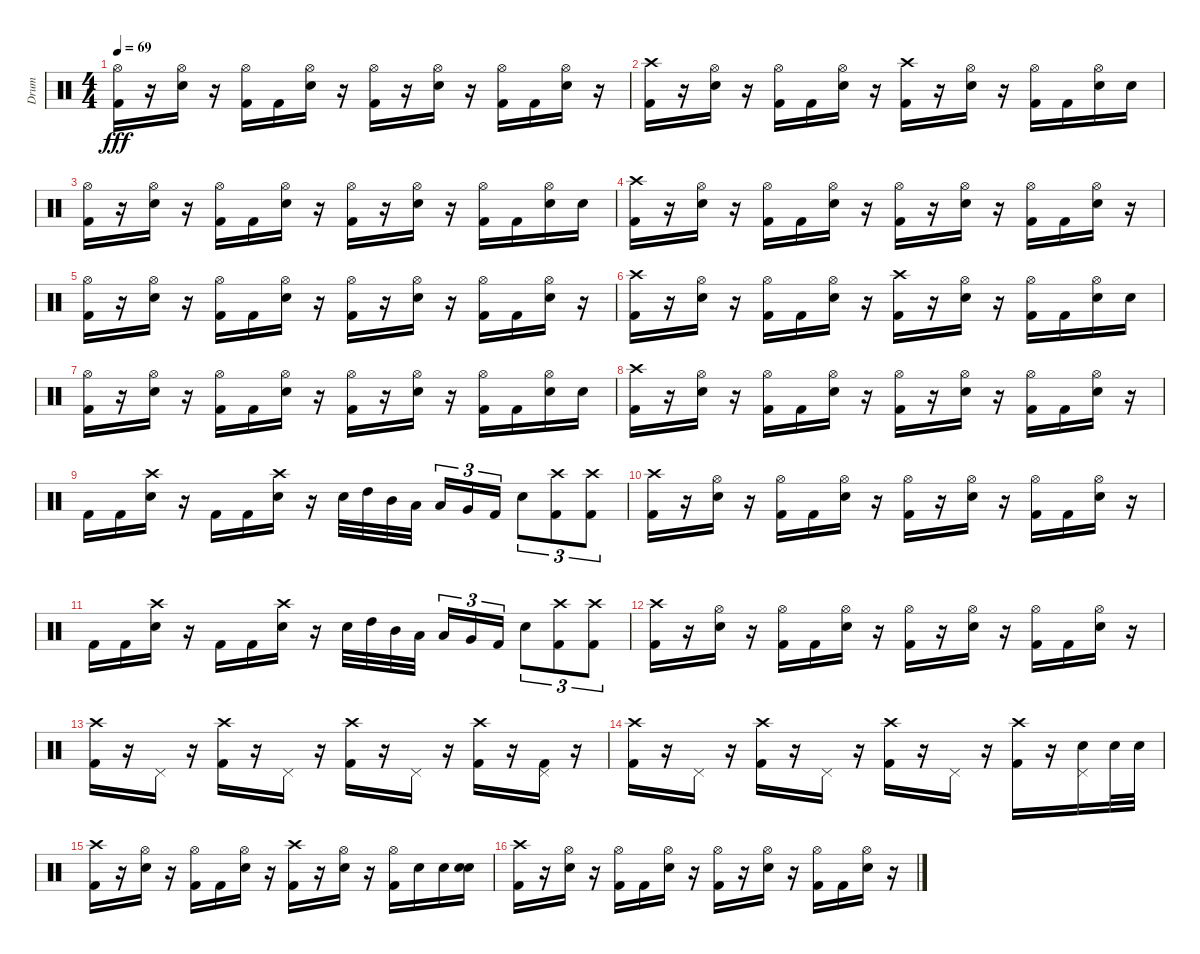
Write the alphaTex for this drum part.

\track ("Drum" "Drum") {instrument percussion}
\staff {score}
\articulation defaults
\ts (4 4)
\tempo 69
\clef neutral
\ks c
("Hi-Hat (open)" "Kick (hit) 2").16{dy fff} r.16 ("Electric Snare (hit)" "Hi-Hat (open)").16 r.16 ("Hi-Hat (open)" "Kick (hit) 2").16 "Kick (hit) 2".16 ("Electric Snare (hit)" "Hi-Hat (open)").16 r.16 ("Hi-Hat (open)" "Kick (hit) 2").16 r.16 ("Electric Snare (hit)" "Hi-Hat (open)").16 r.16 ("Hi-Hat (open)" "Kick (hit) 2").16 "Kick (hit) 2".16 ("Hi-Hat (open)" "Electric Snare (hit)").16 r.16 |
("Crash high (hit)" "Kick (hit) 2").16 r.16 ("Electric Snare (hit)" "Hi-Hat (open)").16 r.16 ("Kick (hit) 2" "Hi-Hat (open)").16 "Kick (hit) 2".16 ("Hi-Hat (open)" "Electric Snare (hit)").16 r.16 ("Kick (hit) 2" "Crash high (hit)").16 r.16 ("Electric Snare (hit)" "Hi-Hat (open)").16 r.16 ("Kick (hit) 2" "Hi-Hat (open)").16 "Kick (hit) 2".16 ("Hi-Hat (open)" "Electric Snare (hit)").16 "Electric Snare (hit)".16 |
("Hi-Hat (open)" "Kick (hit) 2").16 r.16 ("Electric Snare (hit)" "Hi-Hat (open)").16 r.16 ("Kick (hit) 2" "Hi-Hat (open)").16 "Kick (hit) 2".16 ("Electric Snare (hit)" "Hi-Hat (open)").16 r.16 ("Hi-Hat (open)" "Kick (hit) 2").16 r.16 ("Electric Snare (hit)" "Hi-Hat (open)").16 r.16 ("Kick (hit) 2" "Hi-Hat (open)").16 "Kick (hit) 2".16 ("Electric Snare (hit)" "Hi-Hat (open)").16 "Electric Snare (hit)".16 |
("Crash high (hit)" "Kick (hit) 2").16 r.16 ("Hi-Hat (open)" "Electric Snare (hit)").16 r.16 ("Kick (hit) 2" "Hi-Hat (open)").16 "Kick (hit) 2".16 ("Hi-Hat (open)" "Electric Snare (hit)").16 r.16 ("Hi-Hat (open)" "Kick (hit) 2").16 r.16 ("Electric Snare (hit)" "Hi-Hat (open)").16 r.16 ("Kick (hit) 2" "Hi-Hat (open)").16 "Kick (hit) 2".16 ("Electric Snare (hit)" "Hi-Hat (open)").16 r.16 |
("Hi-Hat (open)" "Kick (hit) 2").16 r.16 ("Electric Snare (hit)" "Hi-Hat (open)").16 r.16 ("Hi-Hat (open)" "Kick (hit) 2").16 "Kick (hit) 2".16 ("Electric Snare (hit)" "Hi-Hat (open)").16 r.16 ("Hi-Hat (open)" "Kick (hit) 2").16 r.16 ("Electric Snare (hit)" "Hi-Hat (open)").16 r.16 ("Hi-Hat (open)" "Kick (hit) 2").16 "Kick (hit) 2".16 ("Hi-Hat (open)" "Electric Snare (hit)").16 r.16 |
("Crash high (hit)" "Kick (hit) 2").16 r.16 ("Electric Snare (hit)" "Hi-Hat (open)").16 r.16 ("Kick (hit) 2" "Hi-Hat (open)").16 "Kick (hit) 2".16 ("Hi-Hat (open)" "Electric Snare (hit)").16 r.16 ("Kick (hit) 2" "Crash high (hit)").16 r.16 ("Electric Snare (hit)" "Hi-Hat (open)").16 r.16 ("Kick (hit) 2" "Hi-Hat (open)").16 "Kick (hit) 2".16 ("Hi-Hat (open)" "Electric Snare (hit)").16 "Electric Snare (hit)".16 |
("Hi-Hat (open)" "Kick (hit) 2").16 r.16 ("Electric Snare (hit)" "Hi-Hat (open)").16 r.16 ("Kick (hit) 2" "Hi-Hat (open)").16 "Kick (hit) 2".16 ("Electric Snare (hit)" "Hi-Hat (open)").16 r.16 ("Hi-Hat (open)" "Kick (hit) 2").16 r.16 ("Electric Snare (hit)" "Hi-Hat (open)").16 r.16 ("Kick (hit) 2" "Hi-Hat (open)").16 "Kick (hit) 2".16 ("Electric Snare (hit)" "Hi-Hat (open)").16 "Electric Snare (hit)".16 |
("Kick (hit) 2" "Crash high (hit)").16 r.16 ("Hi-Hat (open)" "Electric Snare (hit)").16 r.16 ("Kick (hit) 2" "Hi-Hat (open)").16 "Kick (hit) 2".16 ("Electric Snare (hit)" "Hi-Hat (open)").16 r.16 ("Hi-Hat (open)" "Kick (hit) 2").16 r.16 ("Electric Snare (hit)" "Hi-Hat (open)").16 r.16 ("Hi-Hat (open)" "Kick (hit) 2").16 "Kick (hit) 2".16 ("Electric Snare (hit)" "Hi-Hat (open)").16 r.16 |
"Kick (hit) 2".16 "Kick (hit) 2".16 ("Electric Snare (hit)" "Crash high (hit)").16 r.16 "Kick (hit) 2".16 "Kick (hit) 2".16 ("Electric Snare (hit)" "Crash high (hit)").16 r.16 "Electric Snare (hit)".32 "High Tom (hit)".32 "Mid Tom (hit)".32 "Low Tom (hit)".32{beam splitsecondary} "Low Tom (hit)".16{tu (3 2)} "Very Low Tom (hit)".16{tu (3 2)} "Kick (hit) 2".16{tu (3 2)} "Electric Snare (hit)".8{tu (3 2)} ("Crash high (hit)" "Kick (hit) 2").8{tu (3 2)} ("Crash high (hit)" "Kick (hit) 2").8{tu (3 2)} |
("Kick (hit) 2" "Crash high (hit)").16 r.16 ("Hi-Hat (open)" "Electric Snare (hit)").16 r.16 ("Kick (hit) 2" "Hi-Hat (open)").16 "Kick (hit) 2".16 ("Electric Snare (hit)" "Hi-Hat (open)").16 r.16 ("Hi-Hat (open)" "Kick (hit) 2").16 r.16 ("Electric Snare (hit)" "Hi-Hat (open)").16 r.16 ("Hi-Hat (open)" "Kick (hit) 2").16 "Kick (hit) 2".16 ("Electric Snare (hit)" "Hi-Hat (open)").16 r.16 |
"Kick (hit) 2".16 "Kick (hit) 2".16 ("Electric Snare (hit)" "Crash high (hit)").16 r.16 "Kick (hit) 2".16 "Kick (hit) 2".16 ("Electric Snare (hit)" "Crash high (hit)").16 r.16 "Electric Snare (hit)".32 "High Tom (hit)".32 "Mid Tom (hit)".32 "Low Tom (hit)".32{beam splitsecondary} "Low Tom (hit)".16{tu (3 2)} "Very Low Tom (hit)".16{tu (3 2)} "Kick (hit) 2".16{tu (3 2)} "Electric Snare (hit)".8{tu (3 2)} ("Crash high (hit)" "Kick (hit) 2").8{tu (3 2)} ("Crash high (hit)" "Kick (hit) 2").8{tu (3 2)} |
("Kick (hit) 2" "Crash high (hit)").16 r.16 ("Hi-Hat (open)" "Electric Snare (hit)").16 r.16 ("Kick (hit) 2" "Hi-Hat (open)").16 "Kick (hit) 2".16 ("Electric Snare (hit)" "Hi-Hat (open)").16 r.16 ("Hi-Hat (open)" "Kick (hit) 2").16 r.16 ("Electric Snare (hit)" "Hi-Hat (open)").16 r.16 ("Hi-Hat (open)" "Kick (hit) 2").16 "Kick (hit) 2".16 ("Electric Snare (hit)" "Hi-Hat (open)").16 r.16 |
("Kick (hit) 2" "Crash high (hit)").16 r.16 "Pedal Hi-Hat (hit)".16 r.16 ("Crash high (hit)" "Kick (hit) 2").16 r.16 "Pedal Hi-Hat (hit)".16 r.16 ("Crash high (hit)" "Kick (hit) 2").16 r.16 "Pedal Hi-Hat (hit)".16 r.16 ("Crash high (hit)" "Kick (hit) 2").16 r.16 ("Pedal Hi-Hat (hit)" "Kick (hit) 2").16 r.16 |
("Crash high (hit)" "Kick (hit) 2").16 r.16 "Pedal Hi-Hat (hit)".16 r.16 ("Kick (hit) 2" "Crash high (hit)").16 r.16 "Pedal Hi-Hat (hit)".16 r.16 ("Kick (hit) 2" "Crash high (hit)").16 r.16 "Pedal Hi-Hat (hit)".16 r.16 ("Crash high (hit)" "Kick (hit) 2").16 r.16 ("Electric Snare (hit)" "Pedal Hi-Hat (hit)").16 "Electric Snare (hit)".32 "Electric Snare (hit)".32 |
("Crash high (hit)" "Kick (hit) 2").16 r.16 ("Hi-Hat (open)" "Electric Snare (hit)").16 r.16 ("Kick (hit) 2" "Hi-Hat (open)").16 "Kick (hit) 2".16 ("Hi-Hat (open)" "Electric Snare (hit)").16 r.16 ("Kick (hit) 2" "Crash high (hit)").16 r.16 ("Hi-Hat (open)" "Electric Snare (hit)").16 r.16 ("Kick (hit) 2" "Hi-Hat (open)").16 "Electric Snare (hit)".16 "Electric Snare (hit)".16 ("Electric Snare (hit)" "Electric Snare (hit)").16 |
("Kick (hit) 2" "Crash high (hit)").16 r.16 ("Hi-Hat (open)" "Electric Snare (hit)").16 r.16 ("Kick (hit) 2" "Hi-Hat (open)").16 "Kick (hit) 2".16 ("Hi-Hat (open)" "Electric Snare (hit)").16 r.16 ("Hi-Hat (open)" "Kick (hit) 2").16 r.16 ("Hi-Hat (open)" "Electric Snare (hit)").16 r.16 ("Kick (hit) 2" "Hi-Hat (open)").16 "Kick (hit) 2".16 ("Hi-Hat (open)" "Electric Snare (hit)").16 r.16
